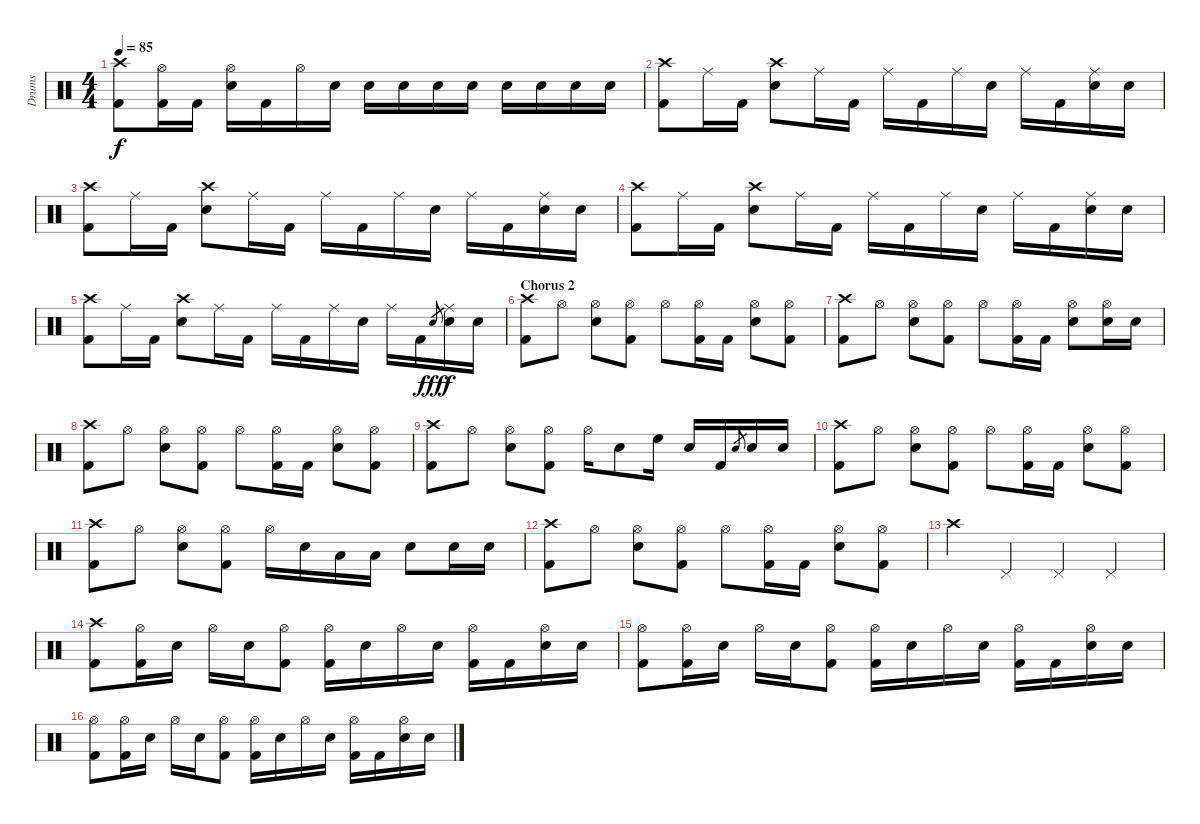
\track ("Drums" "Drums") {instrument percussion}
\staff {score}
\articulation defaults
\ts (4 4)
\tempo 85
\clef neutral
\ks c
("Crash high (hit)" "Kick (hit) 2").8{dy f} ("Hi-Hat (open)" "Kick (hit) 2").16 "Kick (hit) 2".16 ("Hi-Hat (open)" "Electric Snare (hit)").16 "Kick (hit) 2".16 "Hi-Hat (open)".16 "Electric Snare (hit)".16 "Electric Snare (hit)".16 "Electric Snare (hit)".16 "Electric Snare (hit)".16 "Electric Snare (hit)".16 "Electric Snare (hit)".16 "Electric Snare (hit)".16 "Electric Snare (hit)".16 "Electric Snare (hit)".16 |
("Crash high (hit)" "Kick (hit) 2").8 "Ride (middle)".16 "Kick (hit) 2".16 ("Crash high (hit)" "Electric Snare (hit)").8 "Ride (middle)".16 "Kick (hit) 2".16 "Ride (middle)".16 "Kick (hit) 2".16 "Ride (middle)".16 "Electric Snare (hit)".16 "Ride (middle)".16 "Kick (hit) 2".16 ("Ride (middle)" "Electric Snare (hit)").16 "Electric Snare (hit)".16 |
("Crash high (hit)" "Kick (hit) 2").8 "Ride (middle)".16 "Kick (hit) 2".16 ("Crash high (hit)" "Electric Snare (hit)").8 "Ride (middle)".16 "Kick (hit) 2".16 "Ride (middle)".16 "Kick (hit) 2".16 "Ride (middle)".16 "Electric Snare (hit)".16 "Ride (middle)".16 "Kick (hit) 2".16 ("Ride (middle)" "Electric Snare (hit)").16 "Electric Snare (hit)".16 |
("Crash high (hit)" "Kick (hit) 2").8 "Ride (middle)".16 "Kick (hit) 2".16 ("Crash high (hit)" "Electric Snare (hit)").8 "Ride (middle)".16 "Kick (hit) 2".16 "Ride (middle)".16 "Kick (hit) 2".16 "Ride (middle)".16 "Electric Snare (hit)".16 "Ride (middle)".16 "Kick (hit) 2".16 ("Ride (middle)" "Electric Snare (hit)").16 "Electric Snare (hit)".16 |
("Crash high (hit)" "Kick (hit) 2").8 "Ride (middle)".16 "Kick (hit) 2".16 ("Crash high (hit)" "Electric Snare (hit)").8 "Ride (middle)".16 "Kick (hit) 2".16 "Ride (middle)".16 "Kick (hit) 2".16 "Ride (middle)".16 "Electric Snare (hit)".16 "Ride (middle)".16 "Kick (hit) 2".16 "Electric Snare (hit)".8{gr dy fff} ("Ride (middle)" "Electric Snare (hit)").16{dy f} "Electric Snare (hit)".16 |
\section ("" "Chorus 2")
("Crash high (hit)" "Kick (hit) 2").8 "Hi-Hat (open)".8 ("Hi-Hat (open)" "Electric Snare (hit)").8 ("Hi-Hat (open)" "Kick (hit) 2").8 "Hi-Hat (open)".8 ("Hi-Hat (open)" "Kick (hit) 2").16 "Kick (hit) 2".16 ("Hi-Hat (open)" "Electric Snare (hit)").8 ("Hi-Hat (open)" "Kick (hit) 2").8 |
("Crash high (hit)" "Kick (hit) 2").8 "Hi-Hat (open)".8 ("Hi-Hat (open)" "Electric Snare (hit)").8 ("Hi-Hat (open)" "Kick (hit) 2").8 "Hi-Hat (open)".8 ("Hi-Hat (open)" "Kick (hit) 2").16 "Kick (hit) 2".16 ("Hi-Hat (open)" "Electric Snare (hit)").8 ("Hi-Hat (open)" "Electric Snare (hit)").16 "Electric Snare (hit)".16 |
("Crash high (hit)" "Kick (hit) 2").8 "Hi-Hat (open)".8 ("Hi-Hat (open)" "Electric Snare (hit)").8 ("Hi-Hat (open)" "Kick (hit) 2").8 "Hi-Hat (open)".8 ("Hi-Hat (open)" "Kick (hit) 2").16 "Kick (hit) 2".16 ("Hi-Hat (open)" "Electric Snare (hit)").8 ("Hi-Hat (open)" "Kick (hit) 2").8 |
("Crash high (hit)" "Kick (hit) 2").8 "Hi-Hat (open)".8 ("Hi-Hat (open)" "Electric Snare (hit)").8 ("Hi-Hat (open)" "Kick (hit) 2").8 "Hi-Hat (open)".16 "Electric Snare (hit)".8 "High Floor Tom (hit)".16 "Electric Snare (hit)".16 "Kick (hit) 2".16 "Electric Snare (hit)".8{gr} "Electric Snare (hit)".16 "Electric Snare (hit)".16 |
("Crash high (hit)" "Kick (hit) 2").8 "Hi-Hat (open)".8 ("Hi-Hat (open)" "Electric Snare (hit)").8 ("Hi-Hat (open)" "Kick (hit) 2").8 "Hi-Hat (open)".8 ("Hi-Hat (open)" "Kick (hit) 2").16 "Kick (hit) 2".16 ("Hi-Hat (open)" "Electric Snare (hit)").8 ("Hi-Hat (open)" "Kick (hit) 2").8 |
("Crash high (hit)" "Kick (hit) 2").8 "Hi-Hat (open)".8 ("Hi-Hat (open)" "Electric Snare (hit)").8 ("Hi-Hat (open)" "Kick (hit) 2").8 "Hi-Hat (open)".16 "Electric Snare (hit)".16 "Low Floor Tom (hit)".16 "Low Floor Tom (hit)".16 "Electric Snare (hit)".8 "Electric Snare (hit)".16 "Electric Snare (hit)".16 |
("Crash high (hit)" "Kick (hit) 2").8 "Hi-Hat (open)".8 ("Hi-Hat (open)" "Electric Snare (hit)").8 ("Hi-Hat (open)" "Kick (hit) 2").8 "Hi-Hat (open)".8 ("Hi-Hat (open)" "Kick (hit) 2").16 "Kick (hit) 2".16 ("Hi-Hat (open)" "Electric Snare (hit)").8 ("Hi-Hat (open)" "Kick (hit) 2").8 |
"Crash high (hit)".4 "Pedal Hi-Hat (hit)".4 "Pedal Hi-Hat (hit)".4 "Pedal Hi-Hat (hit)".4 |
("Crash high (hit)" "Kick (hit) 2").8 ("Hi-Hat (open)" "Kick (hit) 2").16 "Electric Snare (hit)".16 "Hi-Hat (open)".16 "Electric Snare (hit)".16 ("Hi-Hat (open)" "Kick (hit) 2").8 ("Hi-Hat (open)" "Kick (hit) 2").16 "Electric Snare (hit)".16 "Hi-Hat (open)".16 "Electric Snare (hit)".16 ("Hi-Hat (open)" "Kick (hit) 2").16 "Kick (hit) 2".16 ("Hi-Hat (open)" "Electric Snare (hit)").16 "Electric Snare (hit)".16 |
("Hi-Hat (open)" "Kick (hit) 2").8 ("Hi-Hat (open)" "Kick (hit) 2").16 "Electric Snare (hit)".16 "Hi-Hat (open)".16 "Electric Snare (hit)".16 ("Hi-Hat (open)" "Kick (hit) 2").8 ("Hi-Hat (open)" "Kick (hit) 2").16 "Electric Snare (hit)".16 "Hi-Hat (open)".16 "Electric Snare (hit)".16 ("Hi-Hat (open)" "Kick (hit) 2").16 "Kick (hit) 2".16 ("Hi-Hat (open)" "Electric Snare (hit)").16 "Electric Snare (hit)".16 |
("Hi-Hat (open)" "Kick (hit) 2").8 ("Hi-Hat (open)" "Kick (hit) 2").16 "Electric Snare (hit)".16 "Hi-Hat (open)".16 "Electric Snare (hit)".16 ("Hi-Hat (open)" "Kick (hit) 2").8 ("Hi-Hat (open)" "Kick (hit) 2").16 "Electric Snare (hit)".16 "Hi-Hat (open)".16 "Electric Snare (hit)".16 ("Hi-Hat (open)" "Kick (hit) 2").16 "Kick (hit) 2".16 ("Hi-Hat (open)" "Electric Snare (hit)").16 "Electric Snare (hit)".16
